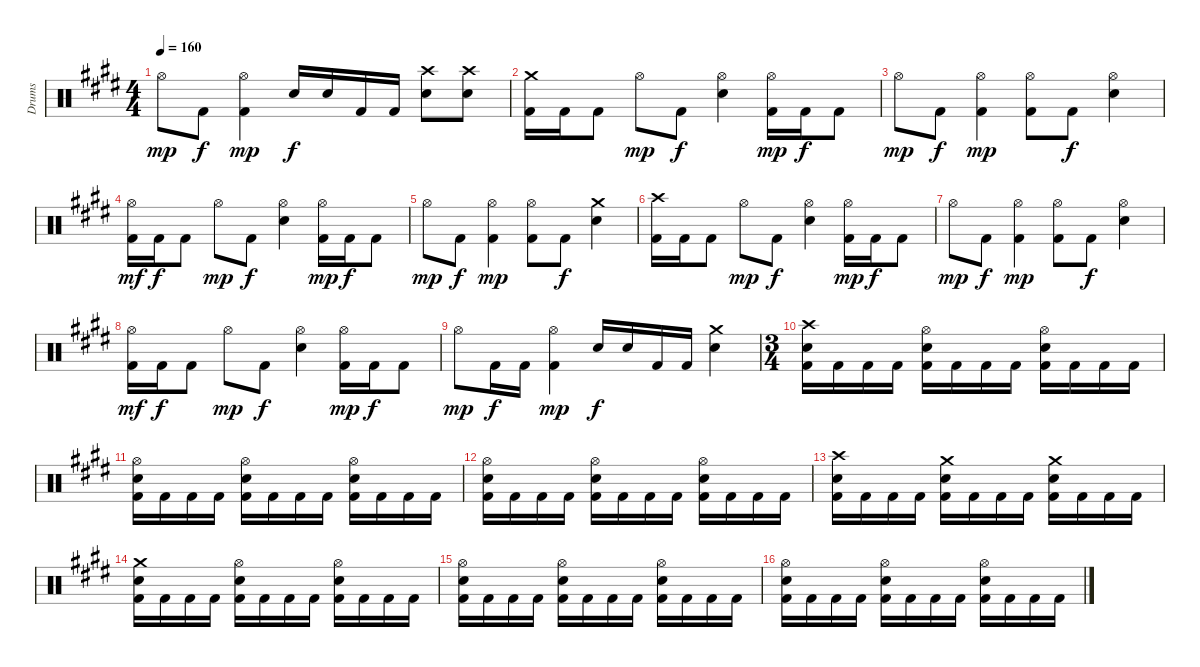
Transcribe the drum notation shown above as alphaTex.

\track ("Drums" "Drums") {instrument percussion}
\staff {score}
\articulation defaults
\ts (4 4)
\tempo 160
\clef neutral
\ks c#minor "Hi-Hat (open)".8{dy mp} "Kick (hit) 2".8{dy f}
("Hi-Hat (open)" "Kick (hit) 2").4{dy mp} "Snare (hit) 2".16{dy f} "Snare (hit) 2".16 "Kick (hit) 2".16 "Kick (hit) 2".16 ("Crash high (hit)" "Snare (hit) 2").8 ("Crash high (hit)" "Snare (hit) 2").8 |
("Crash medium (hit)" "Kick (hit) 2").16 "Kick (hit) 2".16 "Kick (hit) 2".8 "Hi-Hat (open)".8{dy mp} "Kick (hit) 2".8{dy f} ("Hi-Hat (open)" "Snare (hit) 2").4 ("Hi-Hat (open)" "Kick (hit) 2").16{dy mp} "Kick (hit) 2".16{dy f} "Kick (hit) 2".8 |
"Hi-Hat (open)".8{dy mp} "Kick (hit) 2".8{dy f} ("Hi-Hat (open)" "Kick (hit) 2").4{dy mp} ("Hi-Hat (open)" "Kick (hit) 2").8 "Kick (hit) 2".8{dy f} ("Hi-Hat (open)" "Snare (hit) 2").4 |
("Hi-Hat (open)" "Kick (hit) 2").16{dy mf} "Kick (hit) 2".16{dy f} "Kick (hit) 2".8 "Hi-Hat (open)".8{dy mp} "Kick (hit) 2".8{dy f} ("Hi-Hat (open)" "Snare (hit) 2").4 ("Hi-Hat (open)" "Kick (hit) 2").16{dy mp} "Kick (hit) 2".16{dy f} "Kick (hit) 2".8 |
"Hi-Hat (open)".8{dy mp} "Kick (hit) 2".8{dy f} ("Hi-Hat (open)" "Kick (hit) 2").4{dy mp} ("Hi-Hat (open)" "Kick (hit) 2").8 "Kick (hit) 2".8{dy f} ("Crash medium (hit)" "Snare (hit) 2").4 |
("Crash high (hit)" "Kick (hit) 2").16 "Kick (hit) 2".16 "Kick (hit) 2".8 "Hi-Hat (open)".8{dy mp} "Kick (hit) 2".8{dy f} ("Hi-Hat (open)" "Snare (hit) 2").4 ("Hi-Hat (open)" "Kick (hit) 2").16{dy mp} "Kick (hit) 2".16{dy f} "Kick (hit) 2".8 |
"Hi-Hat (open)".8{dy mp} "Kick (hit) 2".8{dy f} ("Hi-Hat (open)" "Kick (hit) 2").4{dy mp} ("Hi-Hat (open)" "Kick (hit) 2").8 "Kick (hit) 2".8{dy f} ("Hi-Hat (open)" "Snare (hit) 2").4 |
("Hi-Hat (open)" "Kick (hit) 2").16{dy mf} "Kick (hit) 2".16{dy f} "Kick (hit) 2".8 "Hi-Hat (open)".8{dy mp} "Kick (hit) 2".8{dy f} ("Hi-Hat (open)" "Snare (hit) 2").4 ("Hi-Hat (open)" "Kick (hit) 2").16{dy mp} "Kick (hit) 2".16{dy f} "Kick (hit) 2".8 |
"Hi-Hat (open)".8{dy mp} "Kick (hit) 2".16{dy f} "Kick (hit) 2".16 ("Hi-Hat (open)" "Kick (hit) 2").4{dy mp} "Snare (hit) 2".16{dy f} "Snare (hit) 2".16 "Kick (hit) 2".16 "Kick (hit) 2".16 ("Crash medium (hit)" "Snare (hit) 2").4 |
\ts (3 4)
("Crash high (hit)" "Snare (hit) 2" "Kick (hit) 2").16 "Kick (hit) 2".16 "Kick (hit) 2".16 "Kick (hit) 2".16 ("Hi-Hat (open)" "Snare (hit) 2" "Kick (hit) 2").16 "Kick (hit) 2".16 "Kick (hit) 2".16 "Kick (hit) 2".16 ("Hi-Hat (open)" "Snare (hit) 2" "Kick (hit) 2").16 "Kick (hit) 2".16 "Kick (hit) 2".16 "Kick (hit) 2".16 |
("Hi-Hat (open)" "Snare (hit) 2" "Kick (hit) 2").16 "Kick (hit) 2".16 "Kick (hit) 2".16 "Kick (hit) 2".16 ("Hi-Hat (open)" "Snare (hit) 2" "Kick (hit) 2").16 "Kick (hit) 2".16 "Kick (hit) 2".16 "Kick (hit) 2".16 ("Hi-Hat (open)" "Snare (hit) 2" "Kick (hit) 2").16 "Kick (hit) 2".16 "Kick (hit) 2".16 "Kick (hit) 2".16 |
("Hi-Hat (open)" "Snare (hit) 2" "Kick (hit) 2").16 "Kick (hit) 2".16 "Kick (hit) 2".16 "Kick (hit) 2".16 ("Hi-Hat (open)" "Snare (hit) 2" "Kick (hit) 2").16 "Kick (hit) 2".16 "Kick (hit) 2".16 "Kick (hit) 2".16 ("Hi-Hat (open)" "Snare (hit) 2" "Kick (hit) 2").16 "Kick (hit) 2".16 "Kick (hit) 2".16 "Kick (hit) 2".16 |
("Crash high (hit)" "Snare (hit) 2" "Kick (hit) 2").16 "Kick (hit) 2".16 "Kick (hit) 2".16 "Kick (hit) 2".16 ("Crash medium (hit)" "Snare (hit) 2" "Kick (hit) 2").16 "Kick (hit) 2".16 "Kick (hit) 2".16 "Kick (hit) 2".16 ("Crash medium (hit)" "Snare (hit) 2" "Kick (hit) 2").16 "Kick (hit) 2".16 "Kick (hit) 2".16 "Kick (hit) 2".16 |
("Crash medium (hit)" "Snare (hit) 2" "Kick (hit) 2").16 "Kick (hit) 2".16 "Kick (hit) 2".16 "Kick (hit) 2".16 ("Hi-Hat (open)" "Snare (hit) 2" "Kick (hit) 2").16 "Kick (hit) 2".16 "Kick (hit) 2".16 "Kick (hit) 2".16 ("Hi-Hat (open)" "Snare (hit) 2" "Kick (hit) 2").16 "Kick (hit) 2".16 "Kick (hit) 2".16 "Kick (hit) 2".16 |
("Hi-Hat (open)" "Snare (hit) 2" "Kick (hit) 2").16 "Kick (hit) 2".16 "Kick (hit) 2".16 "Kick (hit) 2".16 ("Hi-Hat (open)" "Snare (hit) 2" "Kick (hit) 2").16 "Kick (hit) 2".16 "Kick (hit) 2".16 "Kick (hit) 2".16 ("Hi-Hat (open)" "Snare (hit) 2" "Kick (hit) 2").16 "Kick (hit) 2".16 "Kick (hit) 2".16 "Kick (hit) 2".16 |
("Hi-Hat (open)" "Snare (hit) 2" "Kick (hit) 2").16 "Kick (hit) 2".16 "Kick (hit) 2".16 "Kick (hit) 2".16 ("Hi-Hat (open)" "Snare (hit) 2" "Kick (hit) 2").16 "Kick (hit) 2".16 "Kick (hit) 2".16 "Kick (hit) 2".16 ("Hi-Hat (open)" "Snare (hit) 2" "Kick (hit) 2").16 "Kick (hit) 2".16 "Kick (hit) 2".16 "Kick (hit) 2".16
